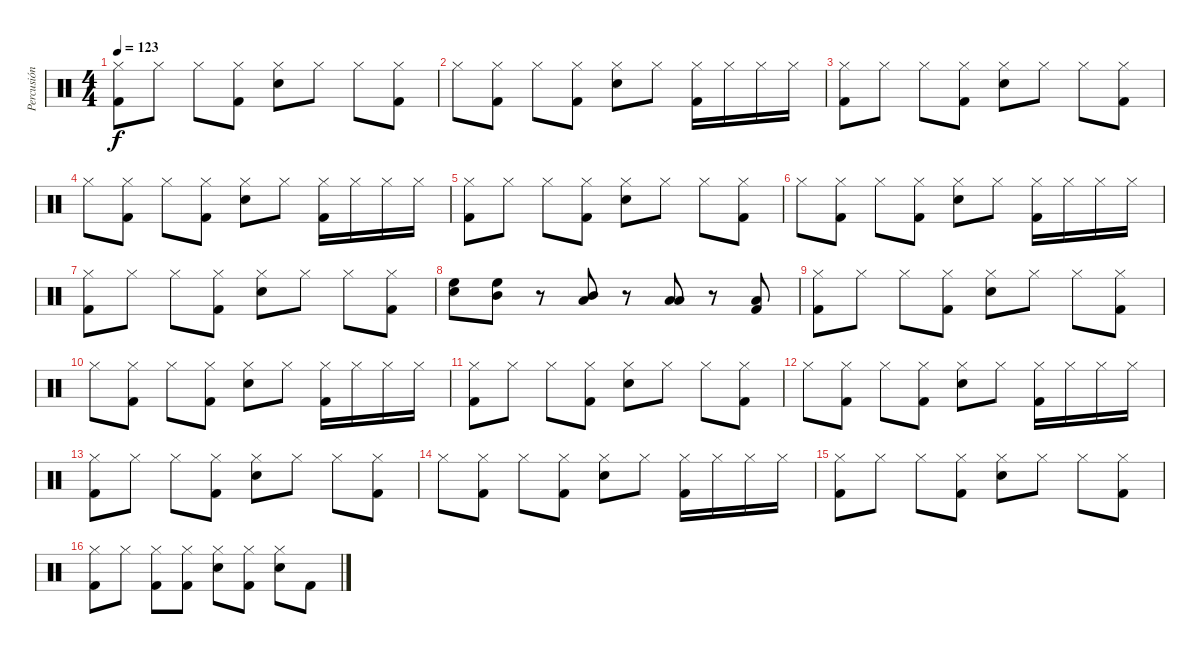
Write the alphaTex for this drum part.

\track ("Percusión" "Percusión") {instrument percussion}
\staff {score}
\articulation defaults
\ts (4 4)
\tempo 123
\clef neutral
\ks c
("Hi-Hat (closed)" "Kick (hit) 2").8{dy f} "Hi-Hat (closed)".8 "Hi-Hat (closed)".8 ("Hi-Hat (closed)" "Kick (hit) 2").8 ("Hi-Hat (closed)" "Snare (hit) 2").8 "Hi-Hat (closed)".8 "Hi-Hat (closed)".8 ("Hi-Hat (closed)" "Kick (hit) 2").8 |
"Hi-Hat (closed)".8 ("Hi-Hat (closed)" "Kick (hit) 2").8 "Hi-Hat (closed)".8 ("Hi-Hat (closed)" "Kick (hit) 2").8 ("Hi-Hat (closed)" "Snare (hit) 2").8 "Hi-Hat (closed)".8 ("Hi-Hat (closed)" "Kick (hit) 2").16 "Hi-Hat (closed)".16 "Hi-Hat (closed)".16 "Hi-Hat (closed)".16 |
("Hi-Hat (closed)" "Kick (hit) 2").8 "Hi-Hat (closed)".8 "Hi-Hat (closed)".8 ("Hi-Hat (closed)" "Kick (hit) 2").8 ("Hi-Hat (closed)" "Snare (hit) 2").8 "Hi-Hat (closed)".8 "Hi-Hat (closed)".8 ("Hi-Hat (closed)" "Kick (hit) 2").8 |
"Hi-Hat (closed)".8 ("Hi-Hat (closed)" "Kick (hit) 2").8 "Hi-Hat (closed)".8 ("Hi-Hat (closed)" "Kick (hit) 2").8 ("Hi-Hat (closed)" "Snare (hit) 2").8 "Hi-Hat (closed)".8 ("Hi-Hat (closed)" "Kick (hit) 2").16 "Hi-Hat (closed)".16 "Hi-Hat (closed)".16 "Hi-Hat (closed)".16 |
("Hi-Hat (closed)" "Kick (hit) 2").8 "Hi-Hat (closed)".8 "Hi-Hat (closed)".8 ("Hi-Hat (closed)" "Kick (hit) 2").8 ("Hi-Hat (closed)" "Snare (hit) 2").8 "Hi-Hat (closed)".8 "Hi-Hat (closed)".8 ("Hi-Hat (closed)" "Kick (hit) 2").8 |
"Hi-Hat (closed)".8 ("Hi-Hat (closed)" "Kick (hit) 2").8 "Hi-Hat (closed)".8 ("Hi-Hat (closed)" "Kick (hit) 2").8 ("Hi-Hat (closed)" "Snare (hit) 2").8 "Hi-Hat (closed)".8 ("Hi-Hat (closed)" "Kick (hit) 2").16 "Hi-Hat (closed)".16 "Hi-Hat (closed)".16 "Hi-Hat (closed)".16 |
("Hi-Hat (closed)" "Kick (hit) 2").8 "Hi-Hat (closed)".8 "Hi-Hat (closed)".8 ("Hi-Hat (closed)" "Kick (hit) 2").8 ("Hi-Hat (closed)" "Snare (hit) 2").8 "Hi-Hat (closed)".8 "Hi-Hat (closed)".8 ("Hi-Hat (closed)" "Kick (hit) 2").8 |
("Snare (hit) 2" "High Floor Tom (hit)").8 ("High Floor Tom (hit)" "Mid Tom (hit)").8 r.8 ("Mid Tom (hit)" "Low Tom (hit)").8 r.8 ("Low Tom (hit)" "Low Floor Tom (hit)").8 r.8 ("Low Floor Tom (hit)" "Kick (hit) 2").8 |
("Hi-Hat (closed)" "Kick (hit) 2").8 "Hi-Hat (closed)".8 "Hi-Hat (closed)".8 ("Hi-Hat (closed)" "Kick (hit) 2").8 ("Hi-Hat (closed)" "Snare (hit) 2").8 "Hi-Hat (closed)".8 "Hi-Hat (closed)".8 ("Hi-Hat (closed)" "Kick (hit) 2").8 |
"Hi-Hat (closed)".8 ("Hi-Hat (closed)" "Kick (hit) 2").8 "Hi-Hat (closed)".8 ("Hi-Hat (closed)" "Kick (hit) 2").8 ("Hi-Hat (closed)" "Snare (hit) 2").8 "Hi-Hat (closed)".8 ("Hi-Hat (closed)" "Kick (hit) 2").16 "Hi-Hat (closed)".16 "Hi-Hat (closed)".16 "Hi-Hat (closed)".16 |
("Hi-Hat (closed)" "Kick (hit) 2").8 "Hi-Hat (closed)".8 "Hi-Hat (closed)".8 ("Hi-Hat (closed)" "Kick (hit) 2").8 ("Hi-Hat (closed)" "Snare (hit) 2").8 "Hi-Hat (closed)".8 "Hi-Hat (closed)".8 ("Hi-Hat (closed)" "Kick (hit) 2").8 |
"Hi-Hat (closed)".8 ("Hi-Hat (closed)" "Kick (hit) 2").8 "Hi-Hat (closed)".8 ("Hi-Hat (closed)" "Kick (hit) 2").8 ("Hi-Hat (closed)" "Snare (hit) 2").8 "Hi-Hat (closed)".8 ("Hi-Hat (closed)" "Kick (hit) 2").16 "Hi-Hat (closed)".16 "Hi-Hat (closed)".16 "Hi-Hat (closed)".16 |
("Hi-Hat (closed)" "Kick (hit) 2").8 "Hi-Hat (closed)".8 "Hi-Hat (closed)".8 ("Hi-Hat (closed)" "Kick (hit) 2").8 ("Hi-Hat (closed)" "Snare (hit) 2").8 "Hi-Hat (closed)".8 "Hi-Hat (closed)".8 ("Hi-Hat (closed)" "Kick (hit) 2").8 |
"Hi-Hat (closed)".8 ("Hi-Hat (closed)" "Kick (hit) 2").8 "Hi-Hat (closed)".8 ("Hi-Hat (closed)" "Kick (hit) 2").8 ("Hi-Hat (closed)" "Snare (hit) 2").8 "Hi-Hat (closed)".8 ("Hi-Hat (closed)" "Kick (hit) 2").16 "Hi-Hat (closed)".16 "Hi-Hat (closed)".16 "Hi-Hat (closed)".16 |
("Hi-Hat (closed)" "Kick (hit) 2").8 "Hi-Hat (closed)".8 "Hi-Hat (closed)".8 ("Hi-Hat (closed)" "Kick (hit) 2").8 ("Hi-Hat (closed)" "Snare (hit) 2").8 "Hi-Hat (closed)".8 "Hi-Hat (closed)".8 ("Hi-Hat (closed)" "Kick (hit) 2").8 |
("Hi-Hat (closed)" "Kick (hit) 2").8 "Hi-Hat (closed)".8 ("Hi-Hat (closed)" "Kick (hit) 2").8 ("Hi-Hat (closed)" "Kick (hit) 2").8 ("Hi-Hat (closed)" "Snare (hit) 2").8 ("Hi-Hat (closed)" "Kick (hit) 2").8 ("Hi-Hat (closed)" "Snare (hit) 2").8 "Kick (hit) 2".8
